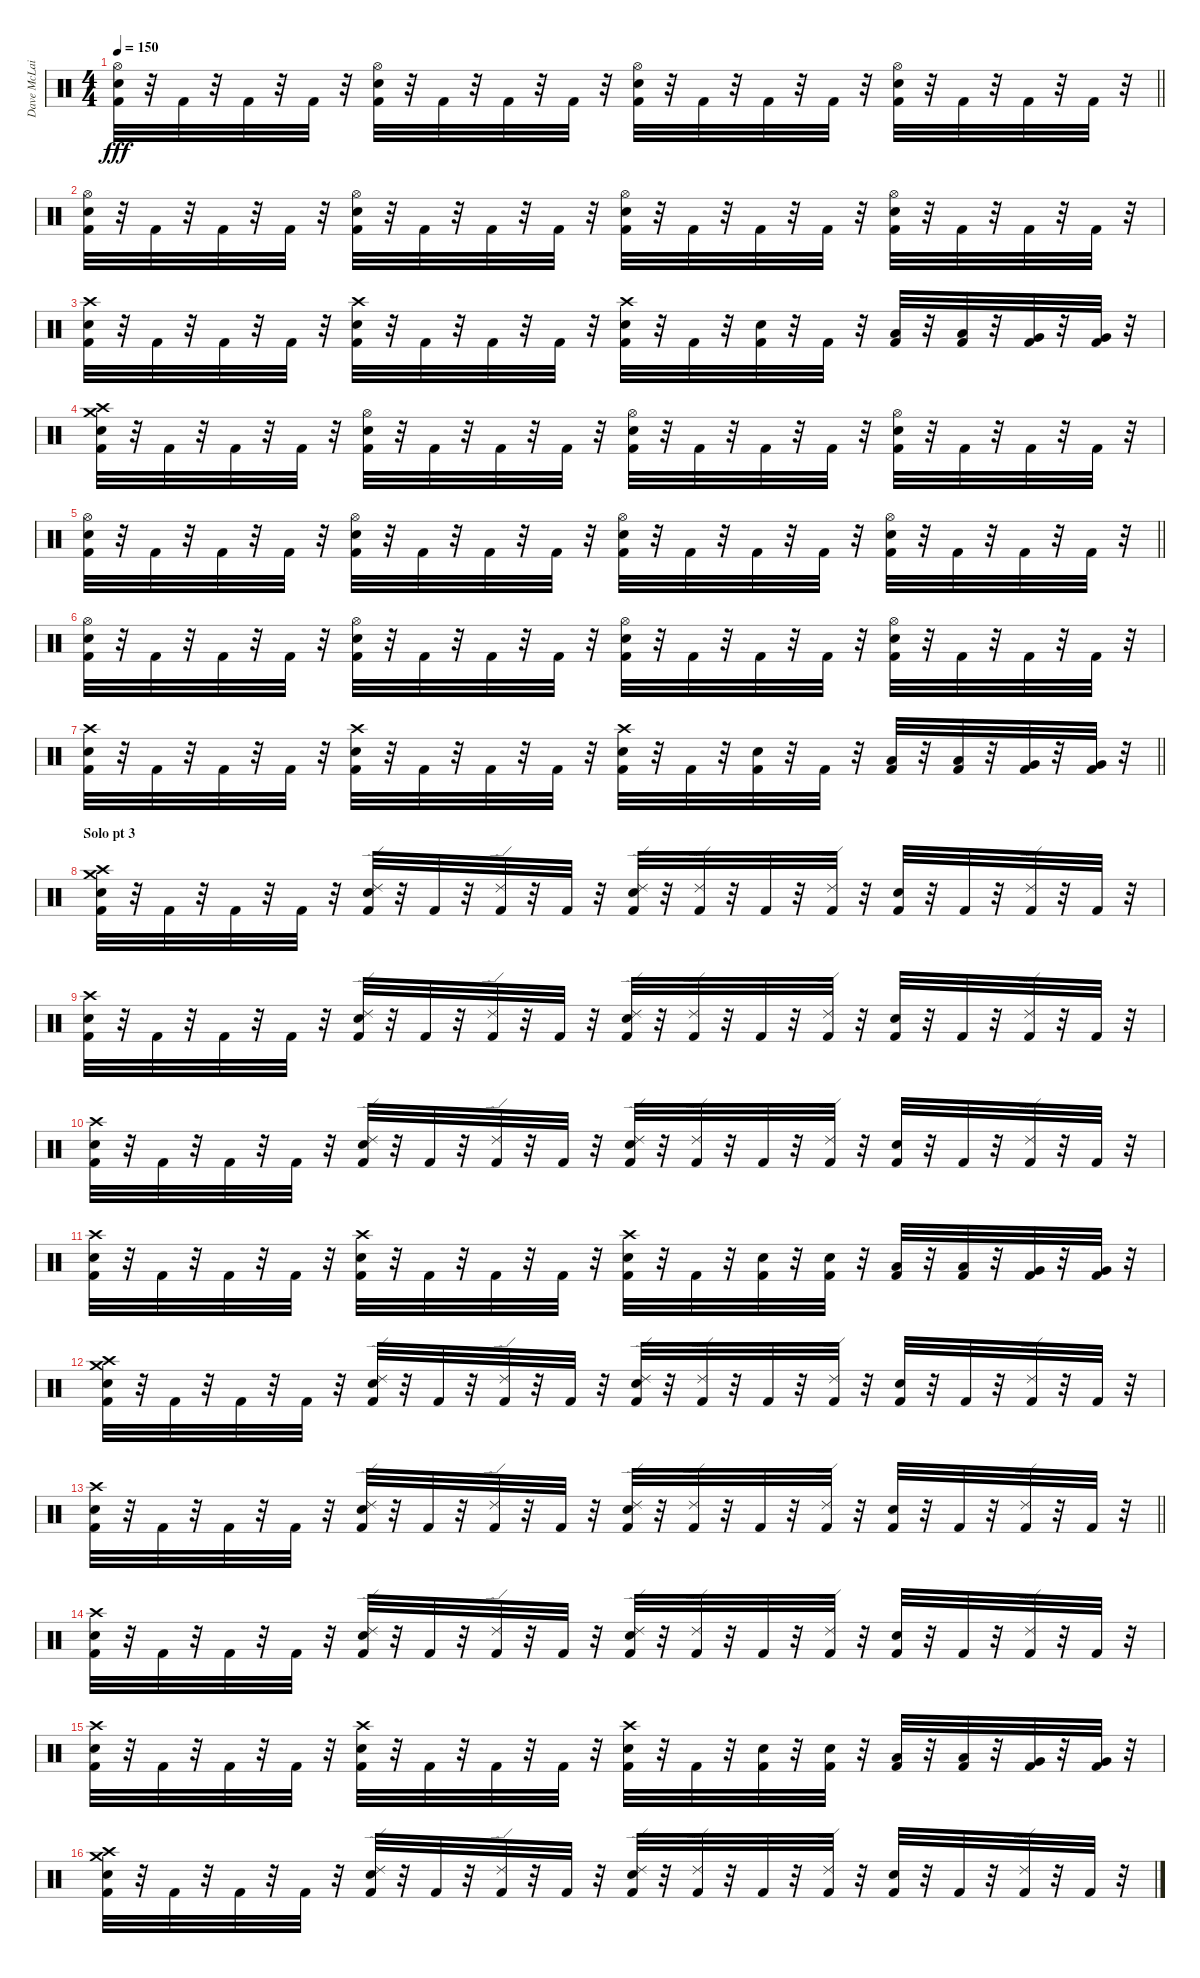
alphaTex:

\track ("Dave McLain" "Dave McLai") {instrument percussion}
\staff {score}
\articulation defaults
\ts (4 4)
\tempo 150
\clef neutral
\barLineRight lightlight
\ks c
("Hi-Hat (open)" "Snare (hit) 2" "Kick (hit) 2").32{dy fff} r.32 "Kick (hit) 2".32 r.32 "Kick (hit) 2".32 r.32 "Kick (hit) 2".32 r.32 ("Hi-Hat (open)" "Snare (hit) 2" "Kick (hit) 2").32 r.32 "Kick (hit) 2".32 r.32 "Kick (hit) 2".32 r.32 "Kick (hit) 2".32 r.32 ("Hi-Hat (open)" "Snare (hit) 2" "Kick (hit) 2").32 r.32 "Kick (hit) 2".32 r.32 "Kick (hit) 2".32 r.32 "Kick (hit) 2".32 r.32 ("Hi-Hat (open)" "Snare (hit) 2" "Kick (hit) 2").32 r.32 "Kick (hit) 2".32 r.32 "Kick (hit) 2".32 r.32 "Kick (hit) 2".32 r.32 |
("Hi-Hat (open)" "Snare (hit) 2" "Kick (hit) 2").32 r.32 "Kick (hit) 2".32 r.32 "Kick (hit) 2".32 r.32 "Kick (hit) 2".32 r.32 ("Hi-Hat (open)" "Snare (hit) 2" "Kick (hit) 2").32 r.32 "Kick (hit) 2".32 r.32 "Kick (hit) 2".32 r.32 "Kick (hit) 2".32 r.32 ("Hi-Hat (open)" "Snare (hit) 2" "Kick (hit) 2").32 r.32 "Kick (hit) 2".32 r.32 "Kick (hit) 2".32 r.32 "Kick (hit) 2".32 r.32 ("Hi-Hat (open)" "Snare (hit) 2" "Kick (hit) 2").32 r.32 "Kick (hit) 2".32 r.32 "Kick (hit) 2".32 r.32 "Kick (hit) 2".32 r.32 |
("Crash high (hit)" "Snare (hit) 2" "Kick (hit) 2").32 r.32 "Kick (hit) 2".32 r.32 "Kick (hit) 2".32 r.32 "Kick (hit) 2".32 r.32 ("Crash high (hit)" "Snare (hit) 2" "Kick (hit) 2").32 r.32 "Kick (hit) 2".32 r.32 "Kick (hit) 2".32 r.32 "Kick (hit) 2".32 r.32 ("Snare (hit) 2" "Crash high (hit)" "Kick (hit) 2").32 r.32 "Kick (hit) 2".32 r.32 ("Snare (hit) 2" "Kick (hit) 2").32 r.32 "Kick (hit) 2".32 r.32 ("Low Tom (hit)" "Kick (hit) 2").32 r.32 ("Low Tom (hit)" "Kick (hit) 2").32 r.32 ("Very Low Tom (hit)" "Kick (hit) 2").32 r.32 ("Very Low Tom (hit)" "Kick (hit) 2").32 r.32 |
("Snare (hit) 2" "Crash high (hit)" "Crash medium (hit)" "Kick (hit) 2").32 r.32 "Kick (hit) 2".32 r.32 "Kick (hit) 2".32 r.32 "Kick (hit) 2".32 r.32 ("Hi-Hat (open)" "Snare (hit) 2" "Kick (hit) 2").32 r.32 "Kick (hit) 2".32 r.32 "Kick (hit) 2".32 r.32 "Kick (hit) 2".32 r.32 ("Hi-Hat (open)" "Snare (hit) 2" "Kick (hit) 2").32 r.32 "Kick (hit) 2".32 r.32 "Kick (hit) 2".32 r.32 "Kick (hit) 2".32 r.32 ("Hi-Hat (open)" "Snare (hit) 2" "Kick (hit) 2").32 r.32 "Kick (hit) 2".32 r.32 "Kick (hit) 2".32 r.32 "Kick (hit) 2".32 r.32 |
\barLineRight lightlight
("Hi-Hat (open)" "Snare (hit) 2" "Kick (hit) 2").32 r.32 "Kick (hit) 2".32 r.32 "Kick (hit) 2".32 r.32 "Kick (hit) 2".32 r.32 ("Hi-Hat (open)" "Snare (hit) 2" "Kick (hit) 2").32 r.32 "Kick (hit) 2".32 r.32 "Kick (hit) 2".32 r.32 "Kick (hit) 2".32 r.32 ("Hi-Hat (open)" "Snare (hit) 2" "Kick (hit) 2").32 r.32 "Kick (hit) 2".32 r.32 "Kick (hit) 2".32 r.32 "Kick (hit) 2".32 r.32 ("Hi-Hat (open)" "Snare (hit) 2" "Kick (hit) 2").32 r.32 "Kick (hit) 2".32 r.32 "Kick (hit) 2".32 r.32 "Kick (hit) 2".32 r.32 |
("Hi-Hat (open)" "Snare (hit) 2" "Kick (hit) 2").32 r.32 "Kick (hit) 2".32 r.32 "Kick (hit) 2".32 r.32 "Kick (hit) 2".32 r.32 ("Hi-Hat (open)" "Snare (hit) 2" "Kick (hit) 2").32 r.32 "Kick (hit) 2".32 r.32 "Kick (hit) 2".32 r.32 "Kick (hit) 2".32 r.32 ("Hi-Hat (open)" "Snare (hit) 2" "Kick (hit) 2").32 r.32 "Kick (hit) 2".32 r.32 "Kick (hit) 2".32 r.32 "Kick (hit) 2".32 r.32 ("Hi-Hat (open)" "Snare (hit) 2" "Kick (hit) 2").32 r.32 "Kick (hit) 2".32 r.32 "Kick (hit) 2".32 r.32 "Kick (hit) 2".32 r.32 |
\barLineRight lightlight
("Crash high (hit)" "Snare (hit) 2" "Kick (hit) 2").32 r.32 "Kick (hit) 2".32 r.32 "Kick (hit) 2".32 r.32 "Kick (hit) 2".32 r.32 ("Crash high (hit)" "Snare (hit) 2" "Kick (hit) 2").32 r.32 "Kick (hit) 2".32 r.32 "Kick (hit) 2".32 r.32 "Kick (hit) 2".32 r.32 ("Snare (hit) 2" "Crash high (hit)" "Kick (hit) 2").32 r.32 "Kick (hit) 2".32 r.32 ("Snare (hit) 2" "Kick (hit) 2").32 r.32 "Kick (hit) 2".32 r.32 ("Low Tom (hit)" "Kick (hit) 2").32 r.32 ("Low Tom (hit)" "Kick (hit) 2").32 r.32 ("Very Low Tom (hit)" "Kick (hit) 2").32 r.32 ("Very Low Tom (hit)" "Kick (hit) 2").32 r.32 |
\section ("" "Solo pt 3")
("Snare (hit) 2" "Crash high (hit)" "Crash medium (hit)" "Kick (hit) 2").32 r.32 "Kick (hit) 2".32 r.32 "Kick (hit) 2".32 r.32 "Kick (hit) 2".32 r.32 ("Ride (edge) 2" "Snare (hit) 2" "Kick (hit) 2").32 r.32 "Kick (hit) 2".32 r.32 ("Ride (edge) 2" "Kick (hit) 2").32 r.32 "Kick (hit) 2".32 r.32 ("Ride (edge) 2" "Snare (hit) 2" "Kick (hit) 2").32 r.32 ("Ride (edge) 2" "Kick (hit) 2").32 r.32 "Kick (hit) 2".32 r.32 ("Ride (edge) 2" "Kick (hit) 2").32 r.32 ("Snare (hit) 2" "Kick (hit) 2").32 r.32 "Kick (hit) 2".32 r.32 ("Ride (edge) 2" "Kick (hit) 2").32 r.32 "Kick (hit) 2".32 r.32 |
("Crash high (hit)" "Snare (hit) 2" "Kick (hit) 2").32 r.32 "Kick (hit) 2".32 r.32 "Kick (hit) 2".32 r.32 "Kick (hit) 2".32 r.32 ("Ride (edge) 2" "Snare (hit) 2" "Kick (hit) 2").32 r.32 "Kick (hit) 2".32 r.32 ("Ride (edge) 2" "Kick (hit) 2").32 r.32 "Kick (hit) 2".32 r.32 ("Ride (edge) 2" "Snare (hit) 2" "Kick (hit) 2").32 r.32 ("Ride (edge) 2" "Kick (hit) 2").32 r.32 "Kick (hit) 2".32 r.32 ("Ride (edge) 2" "Kick (hit) 2").32 r.32 ("Snare (hit) 2" "Kick (hit) 2").32 r.32 "Kick (hit) 2".32 r.32 ("Ride (edge) 2" "Kick (hit) 2").32 r.32 "Kick (hit) 2".32 r.32 |
("Crash high (hit)" "Snare (hit) 2" "Kick (hit) 2").32 r.32 "Kick (hit) 2".32 r.32 "Kick (hit) 2".32 r.32 "Kick (hit) 2".32 r.32 ("Ride (edge) 2" "Snare (hit) 2" "Kick (hit) 2").32 r.32 "Kick (hit) 2".32 r.32 ("Ride (edge) 2" "Kick (hit) 2").32 r.32 "Kick (hit) 2".32 r.32 ("Ride (edge) 2" "Snare (hit) 2" "Kick (hit) 2").32 r.32 ("Ride (edge) 2" "Kick (hit) 2").32 r.32 "Kick (hit) 2".32 r.32 ("Ride (edge) 2" "Kick (hit) 2").32 r.32 ("Snare (hit) 2" "Kick (hit) 2").32 r.32 "Kick (hit) 2".32 r.32 ("Ride (edge) 2" "Kick (hit) 2").32 r.32 "Kick (hit) 2".32 r.32 |
("Crash high (hit)" "Snare (hit) 2" "Kick (hit) 2").32 r.32 "Kick (hit) 2".32 r.32 "Kick (hit) 2".32 r.32 "Kick (hit) 2".32 r.32 ("Crash high (hit)" "Snare (hit) 2" "Kick (hit) 2").32 r.32 "Kick (hit) 2".32 r.32 "Kick (hit) 2".32 r.32 "Kick (hit) 2".32 r.32 ("Snare (hit) 2" "Crash high (hit)" "Kick (hit) 2").32 r.32 "Kick (hit) 2".32 r.32 ("Snare (hit) 2" "Kick (hit) 2").32 r.32 ("Snare (hit) 2" "Kick (hit) 2").32 r.32 ("Low Tom (hit)" "Kick (hit) 2").32 r.32 ("Low Tom (hit)" "Kick (hit) 2").32 r.32 ("Very Low Tom (hit)" "Kick (hit) 2").32 r.32 ("Very Low Tom (hit)" "Kick (hit) 2").32 r.32 |
("Snare (hit) 2" "Crash high (hit)" "Crash medium (hit)" "Kick (hit) 2").32 r.32 "Kick (hit) 2".32 r.32 "Kick (hit) 2".32 r.32 "Kick (hit) 2".32 r.32 ("Ride (edge) 2" "Snare (hit) 2" "Kick (hit) 2").32 r.32 "Kick (hit) 2".32 r.32 ("Ride (edge) 2" "Kick (hit) 2").32 r.32 "Kick (hit) 2".32 r.32 ("Ride (edge) 2" "Snare (hit) 2" "Kick (hit) 2").32 r.32 ("Ride (edge) 2" "Kick (hit) 2").32 r.32 "Kick (hit) 2".32 r.32 ("Ride (edge) 2" "Kick (hit) 2").32 r.32 ("Snare (hit) 2" "Kick (hit) 2").32 r.32 "Kick (hit) 2".32 r.32 ("Ride (edge) 2" "Kick (hit) 2").32 r.32 "Kick (hit) 2".32 r.32 |
\barLineRight lightlight
("Crash high (hit)" "Snare (hit) 2" "Kick (hit) 2").32 r.32 "Kick (hit) 2".32 r.32 "Kick (hit) 2".32 r.32 "Kick (hit) 2".32 r.32 ("Ride (edge) 2" "Snare (hit) 2" "Kick (hit) 2").32 r.32 "Kick (hit) 2".32 r.32 ("Ride (edge) 2" "Kick (hit) 2").32 r.32 "Kick (hit) 2".32 r.32 ("Ride (edge) 2" "Snare (hit) 2" "Kick (hit) 2").32 r.32 ("Ride (edge) 2" "Kick (hit) 2").32 r.32 "Kick (hit) 2".32 r.32 ("Ride (edge) 2" "Kick (hit) 2").32 r.32 ("Snare (hit) 2" "Kick (hit) 2").32 r.32 "Kick (hit) 2".32 r.32 ("Ride (edge) 2" "Kick (hit) 2").32 r.32 "Kick (hit) 2".32 r.32 |
("Crash high (hit)" "Snare (hit) 2" "Kick (hit) 2").32 r.32 "Kick (hit) 2".32 r.32 "Kick (hit) 2".32 r.32 "Kick (hit) 2".32 r.32 ("Ride (edge) 2" "Snare (hit) 2" "Kick (hit) 2").32 r.32 "Kick (hit) 2".32 r.32 ("Ride (edge) 2" "Kick (hit) 2").32 r.32 "Kick (hit) 2".32 r.32 ("Ride (edge) 2" "Snare (hit) 2" "Kick (hit) 2").32 r.32 ("Ride (edge) 2" "Kick (hit) 2").32 r.32 "Kick (hit) 2".32 r.32 ("Ride (edge) 2" "Kick (hit) 2").32 r.32 ("Snare (hit) 2" "Kick (hit) 2").32 r.32 "Kick (hit) 2".32 r.32 ("Ride (edge) 2" "Kick (hit) 2").32 r.32 "Kick (hit) 2".32 r.32 |
("Crash high (hit)" "Snare (hit) 2" "Kick (hit) 2").32 r.32 "Kick (hit) 2".32 r.32 "Kick (hit) 2".32 r.32 "Kick (hit) 2".32 r.32 ("Crash high (hit)" "Snare (hit) 2" "Kick (hit) 2").32 r.32 "Kick (hit) 2".32 r.32 "Kick (hit) 2".32 r.32 "Kick (hit) 2".32 r.32 ("Snare (hit) 2" "Crash high (hit)" "Kick (hit) 2").32 r.32 "Kick (hit) 2".32 r.32 ("Snare (hit) 2" "Kick (hit) 2").32 r.32 ("Snare (hit) 2" "Kick (hit) 2").32 r.32 ("Low Tom (hit)" "Kick (hit) 2").32 r.32 ("Low Tom (hit)" "Kick (hit) 2").32 r.32 ("Very Low Tom (hit)" "Kick (hit) 2").32 r.32 ("Very Low Tom (hit)" "Kick (hit) 2").32 r.32 |
("Snare (hit) 2" "Crash high (hit)" "Crash medium (hit)" "Kick (hit) 2").32 r.32 "Kick (hit) 2".32 r.32 "Kick (hit) 2".32 r.32 "Kick (hit) 2".32 r.32 ("Ride (edge) 2" "Snare (hit) 2" "Kick (hit) 2").32 r.32 "Kick (hit) 2".32 r.32 ("Ride (edge) 2" "Kick (hit) 2").32 r.32 "Kick (hit) 2".32 r.32 ("Ride (edge) 2" "Snare (hit) 2" "Kick (hit) 2").32 r.32 ("Ride (edge) 2" "Kick (hit) 2").32 r.32 "Kick (hit) 2".32 r.32 ("Ride (edge) 2" "Kick (hit) 2").32 r.32 ("Snare (hit) 2" "Kick (hit) 2").32 r.32 "Kick (hit) 2".32 r.32 ("Ride (edge) 2" "Kick (hit) 2").32 r.32 "Kick (hit) 2".32 r.32
